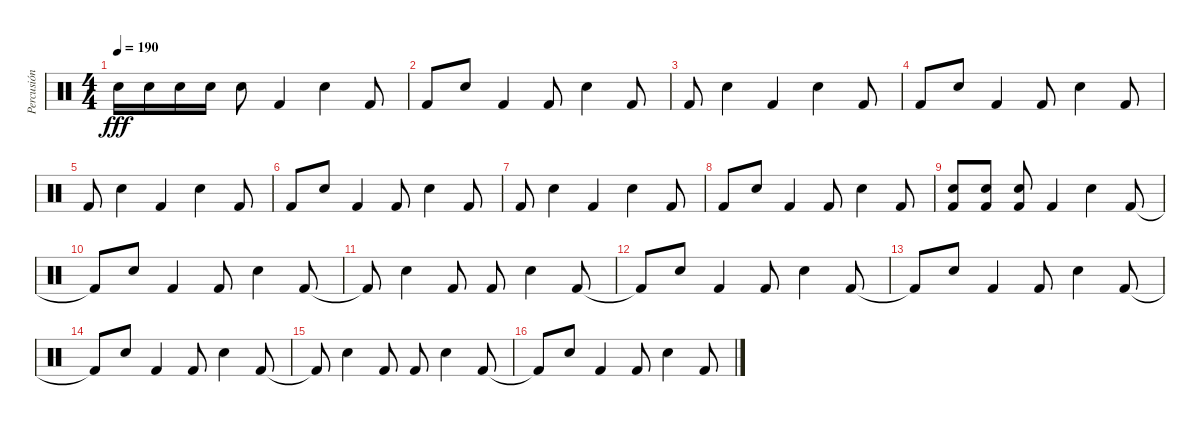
\track ("Percusión" "Percusión") {instrument percussion}
\staff {score}
\articulation defaults
\ts (4 4)
\tempo 190
\clef neutral
\ks c "Snare (hit) 2".16{dy fff} "Snare (hit) 2".16 "Snare (hit) 2".16 "Snare (hit) 2".16 "Snare (hit) 2".8 "Kick (hit) 2".4 "Snare (hit) 2".4 "Kick (hit) 2".8
|
"Kick (hit) 2".8 "Snare (hit) 2".8 "Kick (hit) 2".4 "Kick (hit) 2".8 "Snare (hit) 2".4 "Kick (hit) 2".8 |
"Kick (hit) 2".8 "Snare (hit) 2".4 "Kick (hit) 2".4 "Snare (hit) 2".4 "Kick (hit) 2".8 |
"Kick (hit) 2".8 "Snare (hit) 2".8 "Kick (hit) 2".4 "Kick (hit) 2".8 "Snare (hit) 2".4 "Kick (hit) 2".8 |
"Kick (hit) 2".8 "Snare (hit) 2".4 "Kick (hit) 2".4 "Snare (hit) 2".4 "Kick (hit) 2".8 |
"Kick (hit) 2".8 "Snare (hit) 2".8 "Kick (hit) 2".4 "Kick (hit) 2".8 "Snare (hit) 2".4 "Kick (hit) 2".8 |
"Kick (hit) 2".8 "Snare (hit) 2".4 "Kick (hit) 2".4 "Snare (hit) 2".4 "Kick (hit) 2".8 |
"Kick (hit) 2".8 "Snare (hit) 2".8 "Kick (hit) 2".4 "Kick (hit) 2".8 "Snare (hit) 2".4 "Kick (hit) 2".8 |
("Snare (hit) 2" "Kick (hit) 2").8 ("Snare (hit) 2" "Kick (hit) 2").8 ("Snare (hit) 2" "Kick (hit) 2").8 "Kick (hit) 2".4 "Snare (hit) 2".4 "Kick (hit) 2".8 |
"Kick (hit) 2"{t}.8 "Snare (hit) 2".8 "Kick (hit) 2".4 "Kick (hit) 2".8 "Snare (hit) 2".4 "Kick (hit) 2".8 |
"Kick (hit) 2"{t}.8 "Snare (hit) 2".4 "Kick (hit) 2".8 "Kick (hit) 2".8 "Snare (hit) 2".4 "Kick (hit) 2".8 |
"Kick (hit) 2"{t}.8 "Snare (hit) 2".8 "Kick (hit) 2".4 "Kick (hit) 2".8 "Snare (hit) 2".4 "Kick (hit) 2".8 |
"Kick (hit) 2"{t}.8 "Snare (hit) 2".8 "Kick (hit) 2".4 "Kick (hit) 2".8 "Snare (hit) 2".4 "Kick (hit) 2".8 |
"Kick (hit) 2"{t}.8 "Snare (hit) 2".8 "Kick (hit) 2".4 "Kick (hit) 2".8 "Snare (hit) 2".4 "Kick (hit) 2".8 |
"Kick (hit) 2"{t}.8 "Snare (hit) 2".4 "Kick (hit) 2".8 "Kick (hit) 2".8 "Snare (hit) 2".4 "Kick (hit) 2".8 |
"Kick (hit) 2"{t}.8 "Snare (hit) 2".8 "Kick (hit) 2".4 "Kick (hit) 2".8 "Snare (hit) 2".4 "Kick (hit) 2".8
